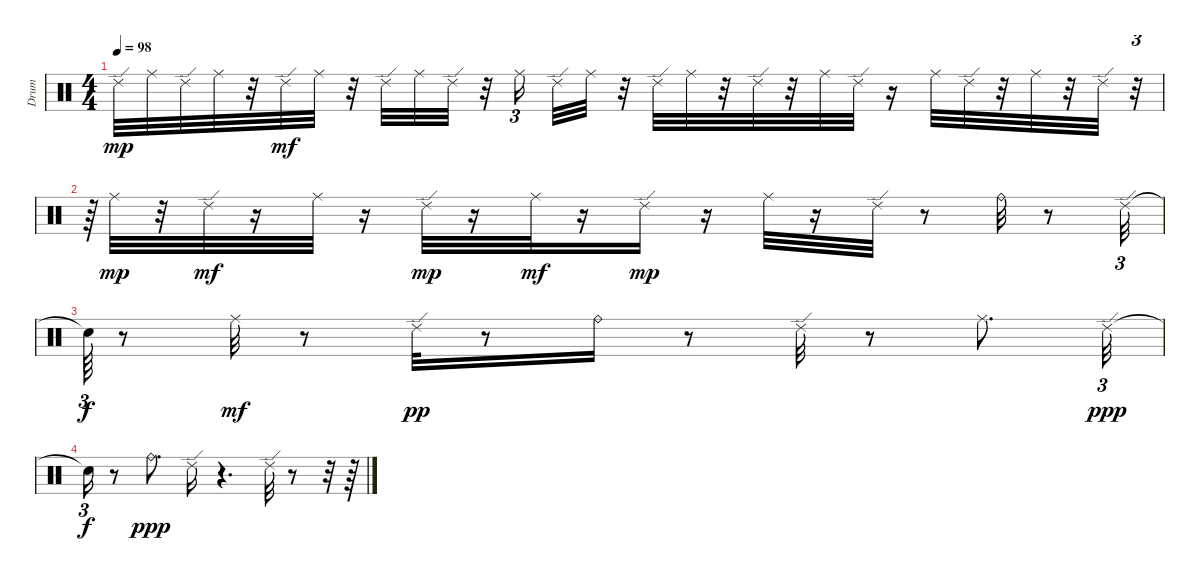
\track ("Drum" "Drum") {instrument percussion}
\staff {score}
\articulation defaults
\ts (4 4)
\tempo 98
\clef neutral
\ks c "Ride (edge) 2".32{dy mp} "Ride (middle)".32 "Ride (edge) 2".32 "Ride (middle)".32
r.32 "Ride (edge) 2".32{dy mf} "Ride (middle)".32 r.32 "Ride (edge) 2".32 "Ride (middle)".32 "Ride (edge) 2".32 r.32 "Ride (middle)".16{tu (3 2)} "Ride (edge) 2".32 "Ride (middle)".32 r.32 "Ride (edge) 2".32 "Ride (middle)".32 r.32 "Ride (edge) 2".32 r.32 "Ride (middle)".32 "Ride (edge) 2".32 r.16 "Ride (middle)".32 "Ride (edge) 2".32 r.32 "Ride (middle)".32 r.32 "Ride (edge) 2".32 r.32{tu (3 2)} |
r.64{tu (3 2)} "Ride (middle)".32{dy mp} r.32 "Ride (edge) 2".32{dy mf} r.16 "Ride (middle)".32 r.16 "Ride (edge) 2".32{dy mp} r.16 "Ride (middle)".32{dy mf} r.16 "Ride (edge) 2".16{dy mp} r.16 "Ride (middle)".32 r.16 "Ride (edge) 2".32 r.8 "Ride (bell)".32 r.8 "Ride (edge) 2".32{tu (3 2)} |
"Snare (hit)"{t}.64{tu (3 2) dy f} r.8 "Ride (middle)".32{dy mf} r.8 "Ride (edge) 2".32{dy pp} r.8 "Ride (bell)".16 r.8 "Ride (edge) 2".32 r.8 "Ride (middle)".8{d} "Ride (edge) 2".32{tu (3 2) dy ppp} |
"Snare (hit)"{t}.16{tu (3 2) dy f} r.8 "Ride (bell)".8{d dy ppp} "Ride (edge) 2".16 r.4{d} "Ride (edge) 2".32 r.8 r.32 r.64
